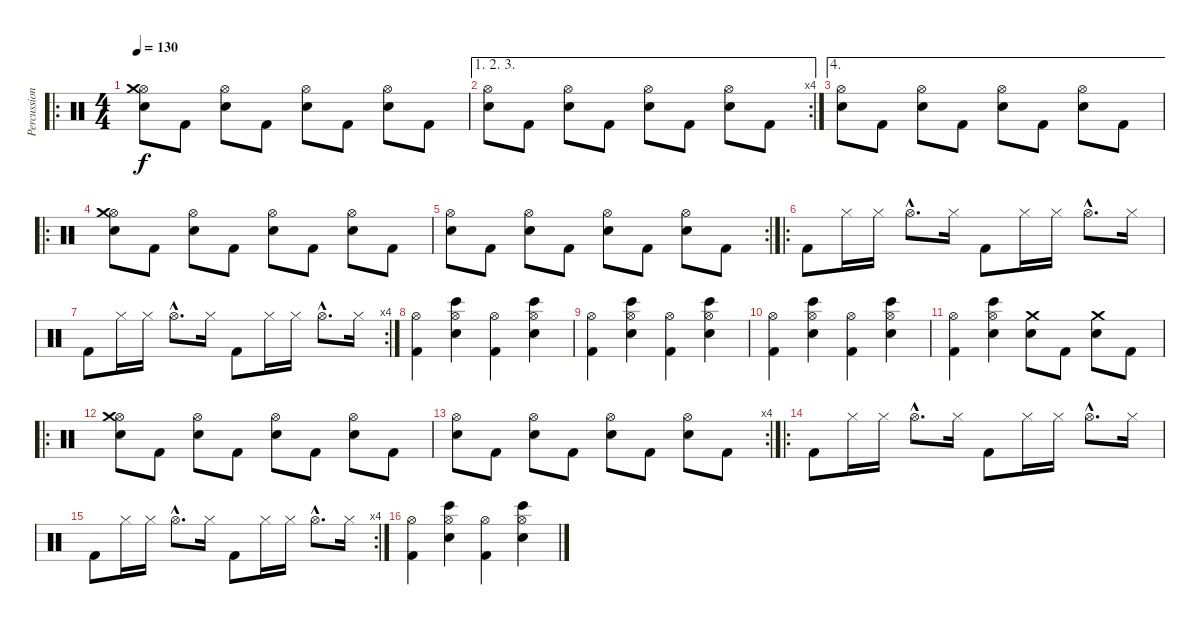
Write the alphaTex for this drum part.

\track ("Percussion" "Percussion") {instrument percussion}
\staff {score}
\articulation defaults
\ro
\ts (4 4)
\tempo 130
\clef neutral
\ks c
("Snare (hit) 2" "Hi-Hat (open)" "Crash medium (hit)").8{dy f} "Kick (hit) 2".8 ("Snare (hit) 2" "Hi-Hat (open)").8 "Kick (hit) 2".8 ("Snare (hit) 2" "Hi-Hat (open)").8 "Kick (hit) 2".8 ("Snare (hit) 2" "Hi-Hat (open)").8 "Kick (hit) 2".8 |
\ae (1 2 3)
\rc 4
("Snare (hit) 2" "Hi-Hat (open)").8 "Kick (hit) 2".8 ("Snare (hit) 2" "Hi-Hat (open)").8 "Kick (hit) 2".8 ("Snare (hit) 2" "Hi-Hat (open)").8 "Kick (hit) 2".8 ("Snare (hit) 2" "Hi-Hat (open)").8 "Kick (hit) 2".8 |
\ae 4
("Snare (hit) 2" "Hi-Hat (open)").8 "Kick (hit) 2".8 ("Snare (hit) 2" "Hi-Hat (open)").8 "Kick (hit) 2".8 ("Snare (hit) 2" "Hi-Hat (open)").8 "Kick (hit) 2".8 ("Snare (hit) 2" "Hi-Hat (open)").8 "Kick (hit) 2".8 |
\ro
("Snare (hit) 2" "Hi-Hat (open)" "Crash medium (hit)").8 "Kick (hit) 2".8 ("Snare (hit) 2" "Hi-Hat (open)").8 "Kick (hit) 2".8 ("Snare (hit) 2" "Hi-Hat (open)").8 "Kick (hit) 2".8 ("Snare (hit) 2" "Hi-Hat (open)").8 "Kick (hit) 2".8 |
\rc 2
("Snare (hit) 2" "Hi-Hat (open)").8 "Kick (hit) 2".8 ("Snare (hit) 2" "Hi-Hat (open)").8 "Kick (hit) 2".8 ("Snare (hit) 2" "Hi-Hat (open)").8 "Kick (hit) 2".8 ("Snare (hit) 2" "Hi-Hat (open)").8 "Kick (hit) 2".8 |
\ro "Kick (hit) 2".8 "Hi-Hat (closed)".16 "Hi-Hat (closed)".16 "Hi-Hat (open)"{hac}.8{d} "Hi-Hat (closed)".16 "Kick (hit) 2".8 "Hi-Hat (closed)".16 "Hi-Hat (closed)".16 "Hi-Hat (open)"{hac}.8{d} "Hi-Hat (closed)".16
|
\rc 4 "Kick (hit) 2".8 "Hi-Hat (closed)".16 "Hi-Hat (closed)".16 "Hi-Hat (open)"{hac}.8{d} "Hi-Hat (closed)".16 "Kick (hit) 2".8 "Hi-Hat (closed)".16 "Hi-Hat (closed)".16 "Hi-Hat (open)"{hac}.8{d} "Hi-Hat (closed)".16
|
("Kick (hit) 2" "Hi-Hat (open)").4 ("Snare (hit) 2" "Hi-Hat (open)" "Bongo High (hit)").4 ("Kick (hit) 2" "Hi-Hat (open)").4 ("Snare (hit) 2" "Hi-Hat (open)" "Bongo High (hit)").4 |
("Kick (hit) 2" "Hi-Hat (open)").4 ("Snare (hit) 2" "Hi-Hat (open)" "Bongo High (hit)").4 ("Kick (hit) 2" "Hi-Hat (open)").4 ("Snare (hit) 2" "Hi-Hat (open)" "Bongo High (hit)").4 |
("Kick (hit) 2" "Hi-Hat (open)").4 ("Snare (hit) 2" "Hi-Hat (open)" "Bongo High (hit)").4 ("Kick (hit) 2" "Hi-Hat (open)").4 ("Snare (hit) 2" "Hi-Hat (open)" "Bongo High (hit)").4 |
("Kick (hit) 2" "Hi-Hat (open)").4 ("Snare (hit) 2" "Hi-Hat (open)" "Bongo High (hit)").4 ("Snare (hit) 2" "Crash medium (hit)").8 "Kick (hit) 2".8 ("Snare (hit) 2" "Crash medium (hit)").8 "Kick (hit) 2".8 |
\ro
("Snare (hit) 2" "Hi-Hat (open)" "Crash medium (hit)").8 "Kick (hit) 2".8 ("Snare (hit) 2" "Hi-Hat (open)").8 "Kick (hit) 2".8 ("Snare (hit) 2" "Hi-Hat (open)").8 "Kick (hit) 2".8 ("Snare (hit) 2" "Hi-Hat (open)").8 "Kick (hit) 2".8 |
\rc 4
("Snare (hit) 2" "Hi-Hat (open)").8 "Kick (hit) 2".8 ("Snare (hit) 2" "Hi-Hat (open)").8 "Kick (hit) 2".8 ("Snare (hit) 2" "Hi-Hat (open)").8 "Kick (hit) 2".8 ("Snare (hit) 2" "Hi-Hat (open)").8 "Kick (hit) 2".8 |
\ro "Kick (hit) 2".8 "Hi-Hat (closed)".16 "Hi-Hat (closed)".16 "Hi-Hat (open)"{hac}.8{d} "Hi-Hat (closed)".16 "Kick (hit) 2".8 "Hi-Hat (closed)".16 "Hi-Hat (closed)".16 "Hi-Hat (open)"{hac}.8{d} "Hi-Hat (closed)".16
|
\rc 4 "Kick (hit) 2".8 "Hi-Hat (closed)".16 "Hi-Hat (closed)".16 "Hi-Hat (open)"{hac}.8{d} "Hi-Hat (closed)".16 "Kick (hit) 2".8 "Hi-Hat (closed)".16 "Hi-Hat (closed)".16 "Hi-Hat (open)"{hac}.8{d} "Hi-Hat (closed)".16
|
("Kick (hit) 2" "Hi-Hat (open)").4 ("Snare (hit) 2" "Hi-Hat (open)" "Bongo High (hit)").4 ("Kick (hit) 2" "Hi-Hat (open)").4 ("Snare (hit) 2" "Hi-Hat (open)" "Bongo High (hit)").4
